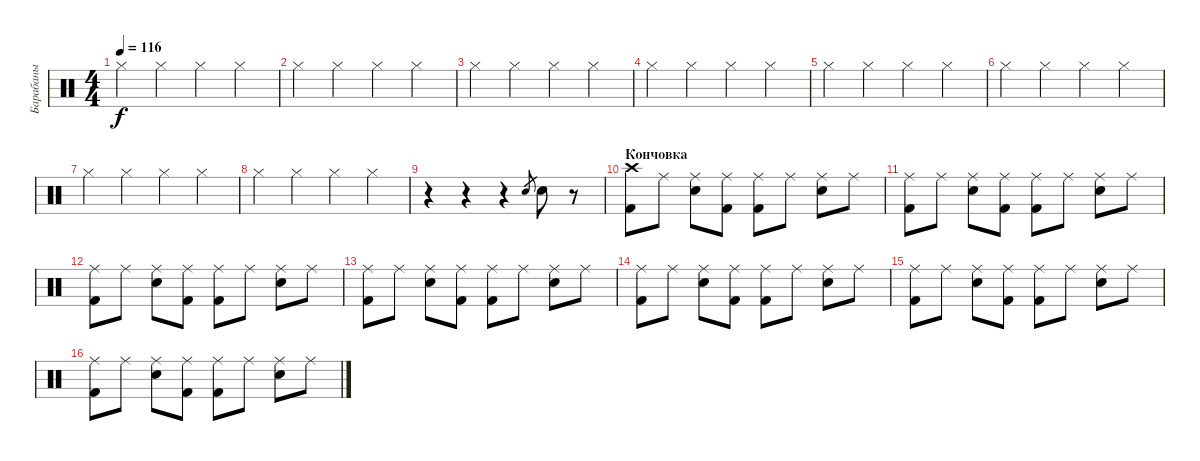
\track ("Барабаны" "Барабаны") {instrument percussion}
\staff {score}
\articulation defaults
\ts (4 4)
\tempo 116
\clef neutral
\ks c "Hi-Hat (closed)".4{dy f} "Hi-Hat (closed)".4 "Hi-Hat (closed)".4 "Hi-Hat (closed)".4
|
"Hi-Hat (closed)".4 "Hi-Hat (closed)".4 "Hi-Hat (closed)".4 "Hi-Hat (closed)".4 |
"Hi-Hat (closed)".4 "Hi-Hat (closed)".4 "Hi-Hat (closed)".4 "Hi-Hat (closed)".4 |
"Hi-Hat (closed)".4 "Hi-Hat (closed)".4 "Hi-Hat (closed)".4 "Hi-Hat (closed)".4 |
"Hi-Hat (closed)".4 "Hi-Hat (closed)".4 "Hi-Hat (closed)".4 "Hi-Hat (closed)".4 |
"Hi-Hat (closed)".4 "Hi-Hat (closed)".4 "Hi-Hat (closed)".4 "Hi-Hat (closed)".4 |
"Hi-Hat (closed)".4 "Hi-Hat (closed)".4 "Hi-Hat (closed)".4 "Hi-Hat (closed)".4 |
"Hi-Hat (closed)".4 "Hi-Hat (closed)".4 "Hi-Hat (closed)".4 "Hi-Hat (closed)".4 |
r.4{volume 16} r.4 r.4 "Snare (hit) 2".8{gr} "Snare (hit) 2".8 r.8 |
\section ("" "Кончовка")
("Crash high (hit)" "Kick (hit) 2").8 "Ride (middle)".8 ("Ride (middle)" "Snare (hit) 2").8 ("Ride (middle)" "Kick (hit) 2").8 ("Ride (middle)" "Kick (hit) 2").8 "Ride (middle)".8 ("Ride (middle)" "Snare (hit) 2").8 "Ride (middle)".8 |
("Ride (middle)" "Kick (hit) 2").8 "Ride (middle)".8 ("Ride (middle)" "Snare (hit) 2").8 ("Ride (middle)" "Kick (hit) 2").8 ("Ride (middle)" "Kick (hit) 2").8 "Ride (middle)".8 ("Ride (middle)" "Snare (hit) 2").8 "Ride (middle)".8 |
("Ride (middle)" "Kick (hit) 2").8 "Ride (middle)".8 ("Ride (middle)" "Snare (hit) 2").8 ("Ride (middle)" "Kick (hit) 2").8 ("Ride (middle)" "Kick (hit) 2").8 "Ride (middle)".8 ("Ride (middle)" "Snare (hit) 2").8 "Ride (middle)".8 |
("Ride (middle)" "Kick (hit) 2").8 "Ride (middle)".8 ("Ride (middle)" "Snare (hit) 2").8 ("Ride (middle)" "Kick (hit) 2").8 ("Ride (middle)" "Kick (hit) 2").8 "Ride (middle)".8 ("Ride (middle)" "Snare (hit) 2").8 "Ride (middle)".8 |
("Ride (middle)" "Kick (hit) 2").8 "Ride (middle)".8 ("Ride (middle)" "Snare (hit) 2").8 ("Ride (middle)" "Kick (hit) 2").8 ("Ride (middle)" "Kick (hit) 2").8 "Ride (middle)".8 ("Ride (middle)" "Snare (hit) 2").8 "Ride (middle)".8 |
("Ride (middle)" "Kick (hit) 2").8 "Ride (middle)".8 ("Ride (middle)" "Snare (hit) 2").8 ("Ride (middle)" "Kick (hit) 2").8 ("Ride (middle)" "Kick (hit) 2").8 "Ride (middle)".8 ("Ride (middle)" "Snare (hit) 2").8 "Ride (middle)".8 |
("Ride (middle)" "Kick (hit) 2").8 "Ride (middle)".8 ("Ride (middle)" "Snare (hit) 2").8 ("Ride (middle)" "Kick (hit) 2").8 ("Ride (middle)" "Kick (hit) 2").8 "Ride (middle)".8 ("Ride (middle)" "Snare (hit) 2").8 "Ride (middle)".8
